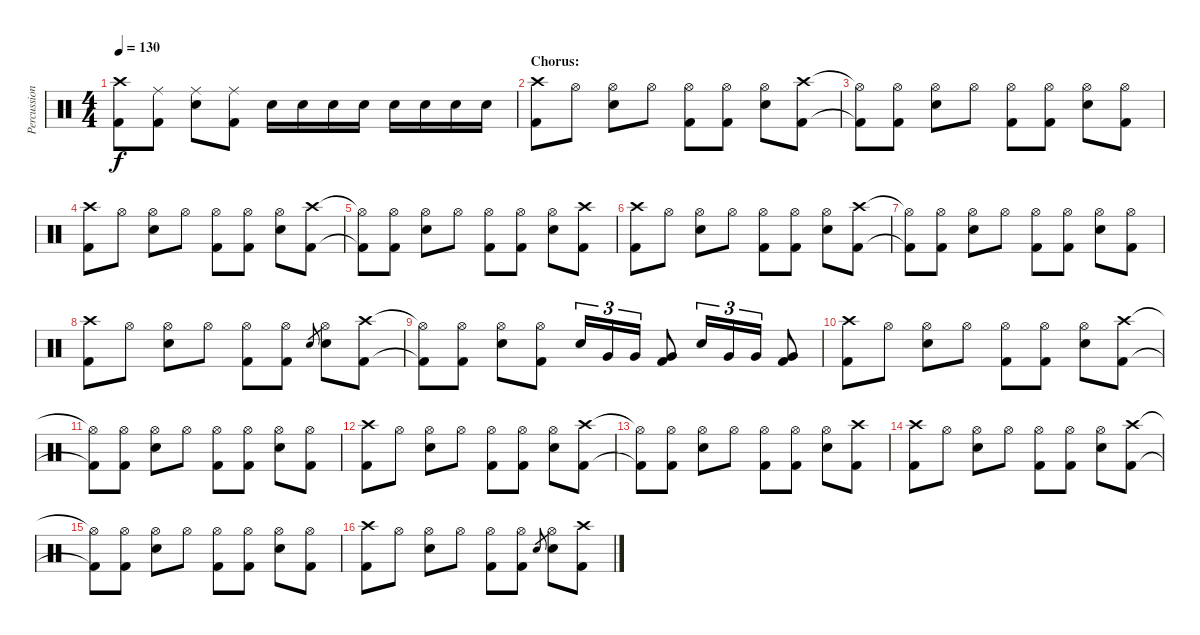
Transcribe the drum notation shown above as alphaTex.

\track ("Percussion" "Percussion") {instrument percussion}
\staff {score}
\articulation defaults
\ts (4 4)
\tempo 130
\clef neutral
\ks c
("Crash high (hit)"{t} "Kick (hit) 2"{t}).8{dy f} ("Ride (middle)" "Kick (hit) 2").8 ("Ride (middle)" "Electric Snare (hit)").8 ("Ride (middle)" "Kick (hit) 2").8 "Electric Snare (hit)".16 "Electric Snare (hit)".16 "Electric Snare (hit)".16 "Electric Snare (hit)".16 "Electric Snare (hit)".16 "Electric Snare (hit)".16 "Electric Snare (hit)".16 "Electric Snare (hit)".16 |
\section ("" "Chorus:")
("Crash high (hit)" "Kick (hit) 2").8 "Hi-Hat (open)".8 ("Hi-Hat (open)" "Electric Snare (hit)").8 "Hi-Hat (open)".8 ("Hi-Hat (open)" "Kick (hit) 2").8 ("Hi-Hat (open)" "Kick (hit) 2").8 ("Hi-Hat (open)" "Electric Snare (hit)").8 ("Crash high (hit)" "Kick (hit) 2").8 |
("Hi-Hat (open)"{t} "Kick (hit) 2"{t}).8 ("Hi-Hat (open)" "Kick (hit) 2").8 ("Hi-Hat (open)" "Electric Snare (hit)").8 "Hi-Hat (open)".8 ("Hi-Hat (open)" "Kick (hit) 2").8 ("Hi-Hat (open)" "Kick (hit) 2").8 ("Hi-Hat (open)" "Electric Snare (hit)").8 ("Hi-Hat (open)" "Kick (hit) 2").8 |
("Crash high (hit)" "Kick (hit) 2").8 "Hi-Hat (open)".8 ("Hi-Hat (open)" "Electric Snare (hit)").8 "Hi-Hat (open)".8 ("Hi-Hat (open)" "Kick (hit) 2").8 ("Hi-Hat (open)" "Kick (hit) 2").8 ("Hi-Hat (open)" "Electric Snare (hit)").8 ("Crash high (hit)" "Kick (hit) 2").8 |
("Hi-Hat (open)"{t} "Kick (hit) 2"{t}).8 ("Hi-Hat (open)" "Kick (hit) 2").8 ("Hi-Hat (open)" "Electric Snare (hit)").8 "Hi-Hat (open)".8 ("Hi-Hat (open)" "Kick (hit) 2").8 ("Hi-Hat (open)" "Kick (hit) 2").8 ("Hi-Hat (open)" "Electric Snare (hit)").8 ("Crash high (hit)" "Kick (hit) 2").8 |
("Crash high (hit)" "Kick (hit) 2").8 "Hi-Hat (open)".8 ("Hi-Hat (open)" "Electric Snare (hit)").8 "Hi-Hat (open)".8 ("Hi-Hat (open)" "Kick (hit) 2").8 ("Hi-Hat (open)" "Kick (hit) 2").8 ("Hi-Hat (open)" "Electric Snare (hit)").8 ("Crash high (hit)" "Kick (hit) 2").8 |
("Hi-Hat (open)"{t} "Kick (hit) 2"{t}).8 ("Hi-Hat (open)" "Kick (hit) 2").8 ("Hi-Hat (open)" "Electric Snare (hit)").8 "Hi-Hat (open)".8 ("Hi-Hat (open)" "Kick (hit) 2").8 ("Hi-Hat (open)" "Kick (hit) 2").8 ("Hi-Hat (open)" "Electric Snare (hit)").8 ("Hi-Hat (open)" "Kick (hit) 2").8 |
("Crash high (hit)" "Kick (hit) 2").8 "Hi-Hat (open)".8 ("Hi-Hat (open)" "Electric Snare (hit)").8 "Hi-Hat (open)".8 ("Hi-Hat (open)" "Kick (hit) 2").8 ("Hi-Hat (open)" "Kick (hit) 2").8 "Electric Snare (hit)".8{gr} ("Hi-Hat (open)" "Electric Snare (hit)").8 ("Crash high (hit)" "Kick (hit) 2").8 |
("Hi-Hat (open)"{t} "Kick (hit) 2"{t}).8 ("Hi-Hat (open)" "Kick (hit) 2").8 ("Hi-Hat (open)" "Electric Snare (hit)").8 ("Hi-Hat (open)" "Kick (hit) 2").8 "Electric Snare (hit)".16{tu (3 2)} "Very Low Tom (hit)".16{tu (3 2)} "Very Low Tom (hit)".16{tu (3 2)} ("Very Low Tom (hit)" "Kick (hit) 2").8 "Electric Snare (hit)".16{tu (3 2)} "Very Low Tom (hit)".16{tu (3 2)} "Very Low Tom (hit)".16{tu (3 2)} ("Very Low Tom (hit)" "Kick (hit) 2").8 |
("Crash high (hit)" "Kick (hit) 2").8 "Hi-Hat (open)".8 ("Hi-Hat (open)" "Electric Snare (hit)").8 "Hi-Hat (open)".8 ("Hi-Hat (open)" "Kick (hit) 2").8 ("Hi-Hat (open)" "Kick (hit) 2").8 ("Hi-Hat (open)" "Electric Snare (hit)").8 ("Crash high (hit)" "Kick (hit) 2").8 |
("Hi-Hat (open)"{t} "Kick (hit) 2"{t}).8 ("Hi-Hat (open)" "Kick (hit) 2").8 ("Hi-Hat (open)" "Electric Snare (hit)").8 "Hi-Hat (open)".8 ("Hi-Hat (open)" "Kick (hit) 2").8 ("Hi-Hat (open)" "Kick (hit) 2").8 ("Hi-Hat (open)" "Electric Snare (hit)").8 ("Hi-Hat (open)" "Kick (hit) 2").8 |
("Crash high (hit)" "Kick (hit) 2").8 "Hi-Hat (open)".8 ("Hi-Hat (open)" "Electric Snare (hit)").8 "Hi-Hat (open)".8 ("Hi-Hat (open)" "Kick (hit) 2").8 ("Hi-Hat (open)" "Kick (hit) 2").8 ("Hi-Hat (open)" "Electric Snare (hit)").8 ("Crash high (hit)" "Kick (hit) 2").8 |
("Hi-Hat (open)"{t} "Kick (hit) 2"{t}).8 ("Hi-Hat (open)" "Kick (hit) 2").8 ("Hi-Hat (open)" "Electric Snare (hit)").8 "Hi-Hat (open)".8 ("Hi-Hat (open)" "Kick (hit) 2").8 ("Hi-Hat (open)" "Kick (hit) 2").8 ("Hi-Hat (open)" "Electric Snare (hit)").8 ("Crash high (hit)" "Kick (hit) 2").8 |
("Crash high (hit)" "Kick (hit) 2").8 "Hi-Hat (open)".8 ("Hi-Hat (open)" "Electric Snare (hit)").8 "Hi-Hat (open)".8 ("Hi-Hat (open)" "Kick (hit) 2").8 ("Hi-Hat (open)" "Kick (hit) 2").8 ("Hi-Hat (open)" "Electric Snare (hit)").8 ("Crash high (hit)" "Kick (hit) 2").8 |
("Hi-Hat (open)"{t} "Kick (hit) 2"{t}).8 ("Hi-Hat (open)" "Kick (hit) 2").8 ("Hi-Hat (open)" "Electric Snare (hit)").8 "Hi-Hat (open)".8 ("Hi-Hat (open)" "Kick (hit) 2").8 ("Hi-Hat (open)" "Kick (hit) 2").8 ("Hi-Hat (open)" "Electric Snare (hit)").8 ("Hi-Hat (open)" "Kick (hit) 2").8 |
("Crash high (hit)" "Kick (hit) 2").8 "Hi-Hat (open)".8 ("Hi-Hat (open)" "Electric Snare (hit)").8 "Hi-Hat (open)".8 ("Hi-Hat (open)" "Kick (hit) 2").8 ("Hi-Hat (open)" "Kick (hit) 2").8 "Electric Snare (hit)".8{gr} ("Hi-Hat (open)" "Electric Snare (hit)").8 ("Crash high (hit)" "Kick (hit) 2").8
